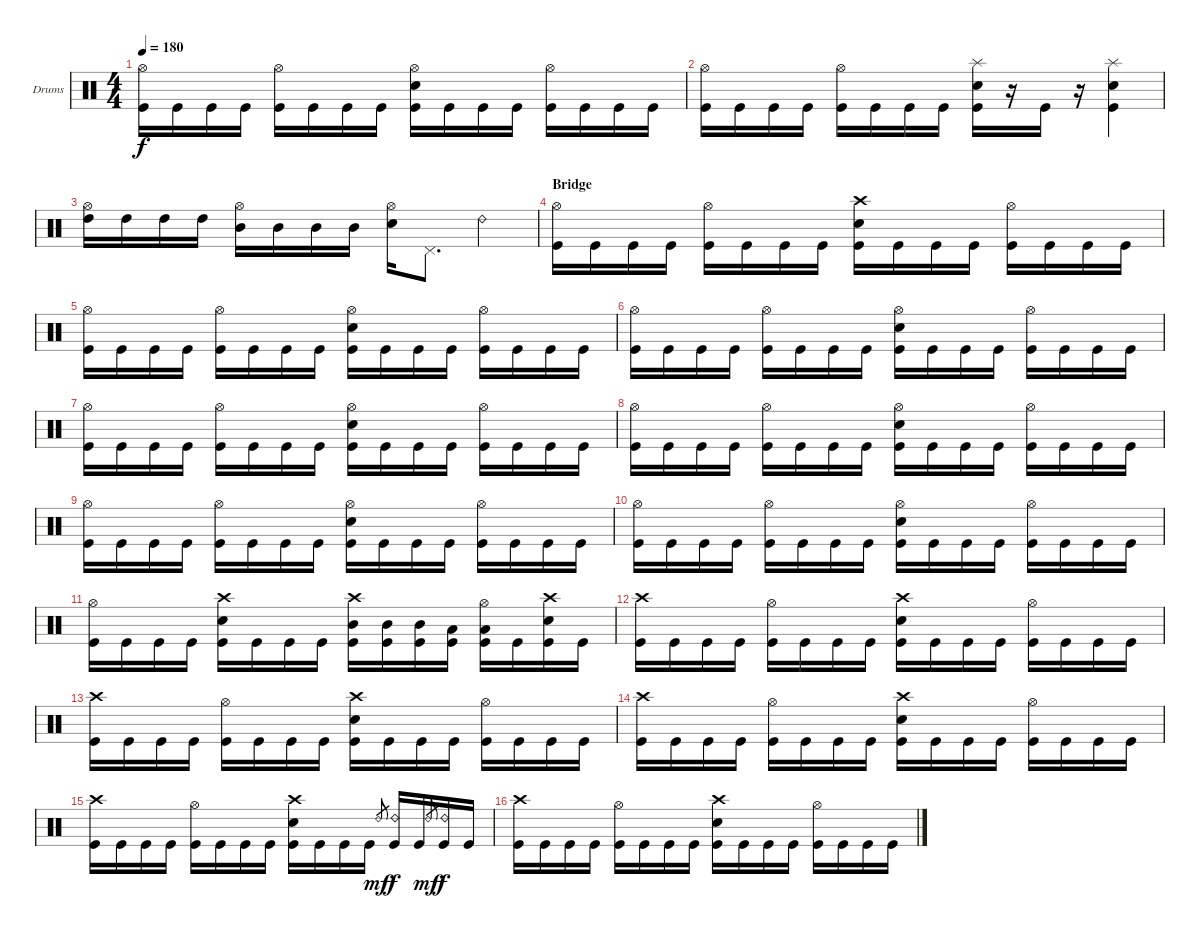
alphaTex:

\bracketExtendMode groupsimilarinstruments
\firstSystemTrackNameOrientation horizontal
\otherSystemsTrackNameOrientation horizontal
\track ("Drumkit" "Drums") {instrument percussion}
\staff {score}
\articulation defaults
\ts (4 4)
\tempo 180
\clef neutral
\ks c
("Hi-Hat (open)" "Kick (hit)").16{dy f} "Kick (hit)".16 "Kick (hit)".16 "Kick (hit)".16 ("Hi-Hat (open)" "Kick (hit)").16 "Kick (hit)".16 "Kick (hit)".16 "Kick (hit)".16 ("Hi-Hat (open)" "Snare (hit) 2" "Kick (hit)").16 "Kick (hit)".16 "Kick (hit)".16 "Kick (hit)".16 ("Hi-Hat (open)" "Kick (hit)").16 "Kick (hit)".16 "Kick (hit)".16 "Kick (hit)".16 |
("Hi-Hat (open)" "Kick (hit)").16 "Kick (hit)".16 "Kick (hit)".16 "Kick (hit)".16 ("Hi-Hat (open)" "Kick (hit)").16 "Kick (hit)".16 "Kick (hit)".16 "Kick (hit)".16 ("Splash (hit)" "Snare (hit) 2" "Kick (hit)").16 r.16 "Kick (hit)".16 r.16 ("Splash (hit)" "Snare (hit) 2" "Kick (hit)").4 |
("Hi-Hat (open)" "High Tom (hit)").16 "High Tom (hit)".16 "High Tom (hit)".16 "High Tom (hit)".16 ("Hi-Hat (open)" "Mid Tom (hit)").16 "Mid Tom (hit)".16 "Mid Tom (hit)".16 "Mid Tom (hit)".16 ("Hi-Hat (open)" "Snare (hit) 2").16 "Pedal Hi-Hat (hit)".8{d} "Ride (bell) 2".4 |
\section ("" "Bridge")
("Hi-Hat (open)" "Kick (hit)").16 "Kick (hit)".16 "Kick (hit)".16 "Kick (hit)".16 ("Hi-Hat (open)" "Kick (hit)").16 "Kick (hit)".16 "Kick (hit)".16 "Kick (hit)".16 ("Crash high (hit)" "Snare (hit) 2" "Kick (hit)").16 "Kick (hit)".16 "Kick (hit)".16 "Kick (hit)".16 ("Hi-Hat (open)" "Kick (hit)").16 "Kick (hit)".16 "Kick (hit)".16 "Kick (hit)".16 |
("Hi-Hat (open)" "Kick (hit)").16 "Kick (hit)".16 "Kick (hit)".16 "Kick (hit)".16 ("Hi-Hat (open)" "Kick (hit)").16 "Kick (hit)".16 "Kick (hit)".16 "Kick (hit)".16 ("Hi-Hat (open)" "Snare (hit) 2" "Kick (hit)").16 "Kick (hit)".16 "Kick (hit)".16 "Kick (hit)".16 ("Hi-Hat (open)" "Kick (hit)").16 "Kick (hit)".16 "Kick (hit)".16 "Kick (hit)".16 |
("Hi-Hat (open)" "Kick (hit)").16 "Kick (hit)".16 "Kick (hit)".16 "Kick (hit)".16 ("Hi-Hat (open)" "Kick (hit)").16 "Kick (hit)".16 "Kick (hit)".16 "Kick (hit)".16 ("Hi-Hat (open)" "Snare (hit) 2" "Kick (hit)").16 "Kick (hit)".16 "Kick (hit)".16 "Kick (hit)".16 ("Hi-Hat (open)" "Kick (hit)").16 "Kick (hit)".16 "Kick (hit)".16 "Kick (hit)".16 |
("Hi-Hat (open)" "Kick (hit)").16 "Kick (hit)".16 "Kick (hit)".16 "Kick (hit)".16 ("Hi-Hat (open)" "Kick (hit)").16 "Kick (hit)".16 "Kick (hit)".16 "Kick (hit)".16 ("Hi-Hat (open)" "Snare (hit) 2" "Kick (hit)").16 "Kick (hit)".16 "Kick (hit)".16 "Kick (hit)".16 ("Hi-Hat (open)" "Kick (hit)").16 "Kick (hit)".16 "Kick (hit)".16 "Kick (hit)".16 |
("Hi-Hat (open)" "Kick (hit)").16 "Kick (hit)".16 "Kick (hit)".16 "Kick (hit)".16 ("Hi-Hat (open)" "Kick (hit)").16 "Kick (hit)".16 "Kick (hit)".16 "Kick (hit)".16 ("Hi-Hat (open)" "Snare (hit) 2" "Kick (hit)").16 "Kick (hit)".16 "Kick (hit)".16 "Kick (hit)".16 ("Hi-Hat (open)" "Kick (hit)").16 "Kick (hit)".16 "Kick (hit)".16 "Kick (hit)".16 |
("Hi-Hat (open)" "Kick (hit)").16 "Kick (hit)".16 "Kick (hit)".16 "Kick (hit)".16 ("Hi-Hat (open)" "Kick (hit)").16 "Kick (hit)".16 "Kick (hit)".16 "Kick (hit)".16 ("Hi-Hat (open)" "Snare (hit) 2" "Kick (hit)").16 "Kick (hit)".16 "Kick (hit)".16 "Kick (hit)".16 ("Hi-Hat (open)" "Kick (hit)").16 "Kick (hit)".16 "Kick (hit)".16 "Kick (hit)".16 |
("Hi-Hat (open)" "Kick (hit)").16 "Kick (hit)".16 "Kick (hit)".16 "Kick (hit)".16 ("Hi-Hat (open)" "Kick (hit)").16 "Kick (hit)".16 "Kick (hit)".16 "Kick (hit)".16 ("Hi-Hat (open)" "Snare (hit) 2" "Kick (hit)").16 "Kick (hit)".16 "Kick (hit)".16 "Kick (hit)".16 ("Hi-Hat (open)" "Kick (hit)").16 "Kick (hit)".16 "Kick (hit)".16 "Kick (hit)".16 |
("Hi-Hat (open)" "Kick (hit)").16 "Kick (hit)".16 "Kick (hit)".16 "Kick (hit)".16 ("Crash high (hit)" "Snare (hit) 2" "Kick (hit)").16 "Kick (hit)".16 "Kick (hit)".16 "Kick (hit)".16 ("Crash high (hit)" "Mid Tom (hit)" "Kick (hit)").16 ("Mid Tom (hit)" "Kick (hit)").16 ("Mid Tom (hit)" "Kick (hit)").16 ("Low Tom (hit)" "Kick (hit)").16 ("Hi-Hat (open)" "Low Tom (hit)" "Kick (hit)").16 "Kick (hit)".16 ("Crash high (hit)" "Snare (hit) 2" "Kick (hit)").16 "Kick (hit)".16 |
("Crash high (hit)" "Kick (hit)").16 "Kick (hit)".16 "Kick (hit)".16 "Kick (hit)".16 ("Hi-Hat (open)" "Kick (hit)").16 "Kick (hit)".16 "Kick (hit)".16 "Kick (hit)".16 ("Crash high (hit)" "Snare (hit) 2" "Kick (hit)").16 "Kick (hit)".16 "Kick (hit)".16 "Kick (hit)".16 ("Hi-Hat (open)" "Kick (hit)").16 "Kick (hit)".16 "Kick (hit)".16 "Kick (hit)".16 |
("Crash high (hit)" "Kick (hit)").16 "Kick (hit)".16 "Kick (hit)".16 "Kick (hit)".16 ("Hi-Hat (open)" "Kick (hit)").16 "Kick (hit)".16 "Kick (hit)".16 "Kick (hit)".16 ("Crash high (hit)" "Snare (hit) 2" "Kick (hit)").16 "Kick (hit)".16 "Kick (hit)".16 "Kick (hit)".16 ("Hi-Hat (open)" "Kick (hit)").16 "Kick (hit)".16 "Kick (hit)".16 "Kick (hit)".16 |
("Crash high (hit)" "Kick (hit)").16 "Kick (hit)".16 "Kick (hit)".16 "Kick (hit)".16 ("Hi-Hat (open)" "Kick (hit)").16 "Kick (hit)".16 "Kick (hit)".16 "Kick (hit)".16 ("Crash high (hit)" "Snare (hit) 2" "Kick (hit)").16 "Kick (hit)".16 "Kick (hit)".16 "Kick (hit)".16 ("Hi-Hat (open)" "Kick (hit)").16 "Kick (hit)".16 "Kick (hit)".16 "Kick (hit)".16 |
("Crash high (hit)" "Kick (hit)").16 "Kick (hit)".16 "Kick (hit)".16 "Kick (hit)".16 ("Hi-Hat (open)" "Kick (hit)").16 "Kick (hit)".16 "Kick (hit)".16 "Kick (hit)".16 ("Crash high (hit)" "Snare (hit) 2" "Kick (hit)").16 "Kick (hit)".16 "Kick (hit)".16 "Kick (hit)".16 "Ride (bell) 2".8{gr dy mf} ("Ride (bell) 2" "Kick (hit)").16{dy f} "Kick (hit)".16 "Ride (bell) 2".8{gr dy mf} ("Ride (bell) 2" "Kick (hit)").16{dy f} "Kick (hit)".16 |
("Crash high (hit)" "Kick (hit)").16 "Kick (hit)".16 "Kick (hit)".16 "Kick (hit)".16 ("Hi-Hat (open)" "Kick (hit)").16 "Kick (hit)".16 "Kick (hit)".16 "Kick (hit)".16 ("Crash high (hit)" "Snare (hit) 2" "Kick (hit)").16 "Kick (hit)".16 "Kick (hit)".16 "Kick (hit)".16 ("Hi-Hat (open)" "Kick (hit)").16 "Kick (hit)".16 "Kick (hit)".16 "Kick (hit)".16
